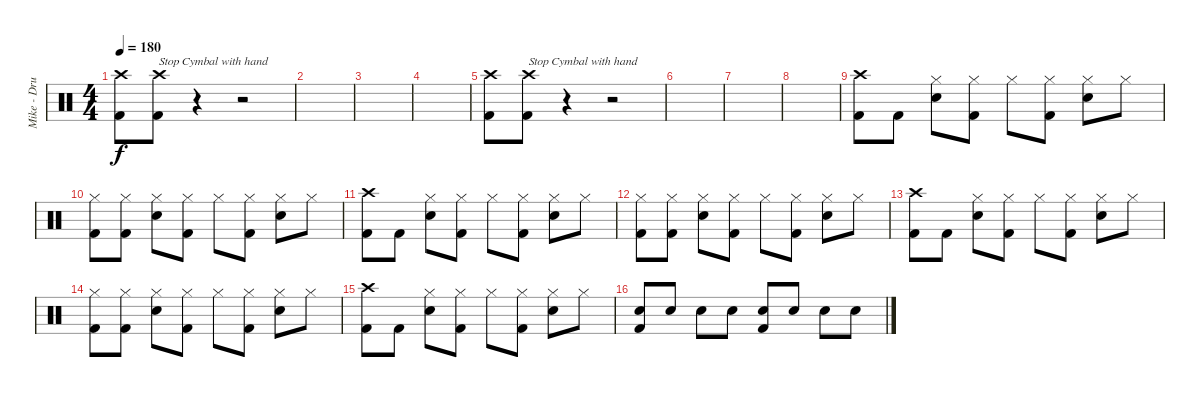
\track ("Mike - Drums" "Mike - Dru") {instrument percussion}
\staff {score}
\articulation defaults
\ts (4 4)
\tempo 180
\clef neutral
\ks c
("Crash high (hit)" "Kick (hit) 2").8{dy f} ("Crash high (hit)" "Kick (hit) 2").8{txt "Stop Cymbal with hand"} r.4 r.2 |
|
|
|
("Crash high (hit)" "Kick (hit) 2").8 ("Crash high (hit)" "Kick (hit) 2").8{txt "Stop Cymbal with hand"} r.4 r.2 |
|
|
|
("Crash high (hit)" "Kick (hit) 2").8 "Kick (hit) 2".8 ("Hi-Hat (closed)" "Snare (hit) 2").8 ("Hi-Hat (closed)" "Kick (hit) 2").8 "Hi-Hat (closed)".8 ("Hi-Hat (closed)" "Kick (hit) 2").8 ("Hi-Hat (closed)" "Snare (hit) 2").8 "Hi-Hat (closed)".8 |
("Hi-Hat (closed)" "Kick (hit) 2").8 ("Hi-Hat (closed)" "Kick (hit) 2").8 ("Hi-Hat (closed)" "Snare (hit) 2").8 ("Hi-Hat (closed)" "Kick (hit) 2").8 "Hi-Hat (closed)".8 ("Hi-Hat (closed)" "Kick (hit) 2").8 ("Hi-Hat (closed)" "Snare (hit) 2").8 "Hi-Hat (closed)".8 |
("Crash high (hit)" "Kick (hit) 2").8 "Kick (hit) 2".8 ("Hi-Hat (closed)" "Snare (hit) 2").8 ("Hi-Hat (closed)" "Kick (hit) 2").8 "Hi-Hat (closed)".8 ("Hi-Hat (closed)" "Kick (hit) 2").8 ("Hi-Hat (closed)" "Snare (hit) 2").8 "Hi-Hat (closed)".8 |
("Hi-Hat (closed)" "Kick (hit) 2").8 ("Hi-Hat (closed)" "Kick (hit) 2").8 ("Hi-Hat (closed)" "Snare (hit) 2").8 ("Hi-Hat (closed)" "Kick (hit) 2").8 "Hi-Hat (closed)".8 ("Hi-Hat (closed)" "Kick (hit) 2").8 ("Hi-Hat (closed)" "Snare (hit) 2").8 "Hi-Hat (closed)".8 |
("Crash high (hit)" "Kick (hit) 2").8 "Kick (hit) 2".8 ("Hi-Hat (closed)" "Snare (hit) 2").8 ("Hi-Hat (closed)" "Kick (hit) 2").8 "Hi-Hat (closed)".8 ("Hi-Hat (closed)" "Kick (hit) 2").8 ("Hi-Hat (closed)" "Snare (hit) 2").8 "Hi-Hat (closed)".8 |
("Hi-Hat (closed)" "Kick (hit) 2").8 ("Hi-Hat (closed)" "Kick (hit) 2").8 ("Hi-Hat (closed)" "Snare (hit) 2").8 ("Hi-Hat (closed)" "Kick (hit) 2").8 "Hi-Hat (closed)".8 ("Hi-Hat (closed)" "Kick (hit) 2").8 ("Hi-Hat (closed)" "Snare (hit) 2").8 "Hi-Hat (closed)".8 |
("Crash high (hit)" "Kick (hit) 2").8 "Kick (hit) 2".8 ("Hi-Hat (closed)" "Snare (hit) 2").8 ("Hi-Hat (closed)" "Kick (hit) 2").8 "Hi-Hat (closed)".8 ("Hi-Hat (closed)" "Kick (hit) 2").8 ("Hi-Hat (closed)" "Snare (hit) 2").8 "Hi-Hat (closed)".8 |
("Snare (hit) 2" "Kick (hit) 2").8 "Snare (hit) 2".8 "Snare (hit) 2".8 "Snare (hit) 2".8 ("Snare (hit) 2" "Kick (hit) 2").8 "Snare (hit) 2".8 "Snare (hit) 2".8 "Snare (hit) 2".8
